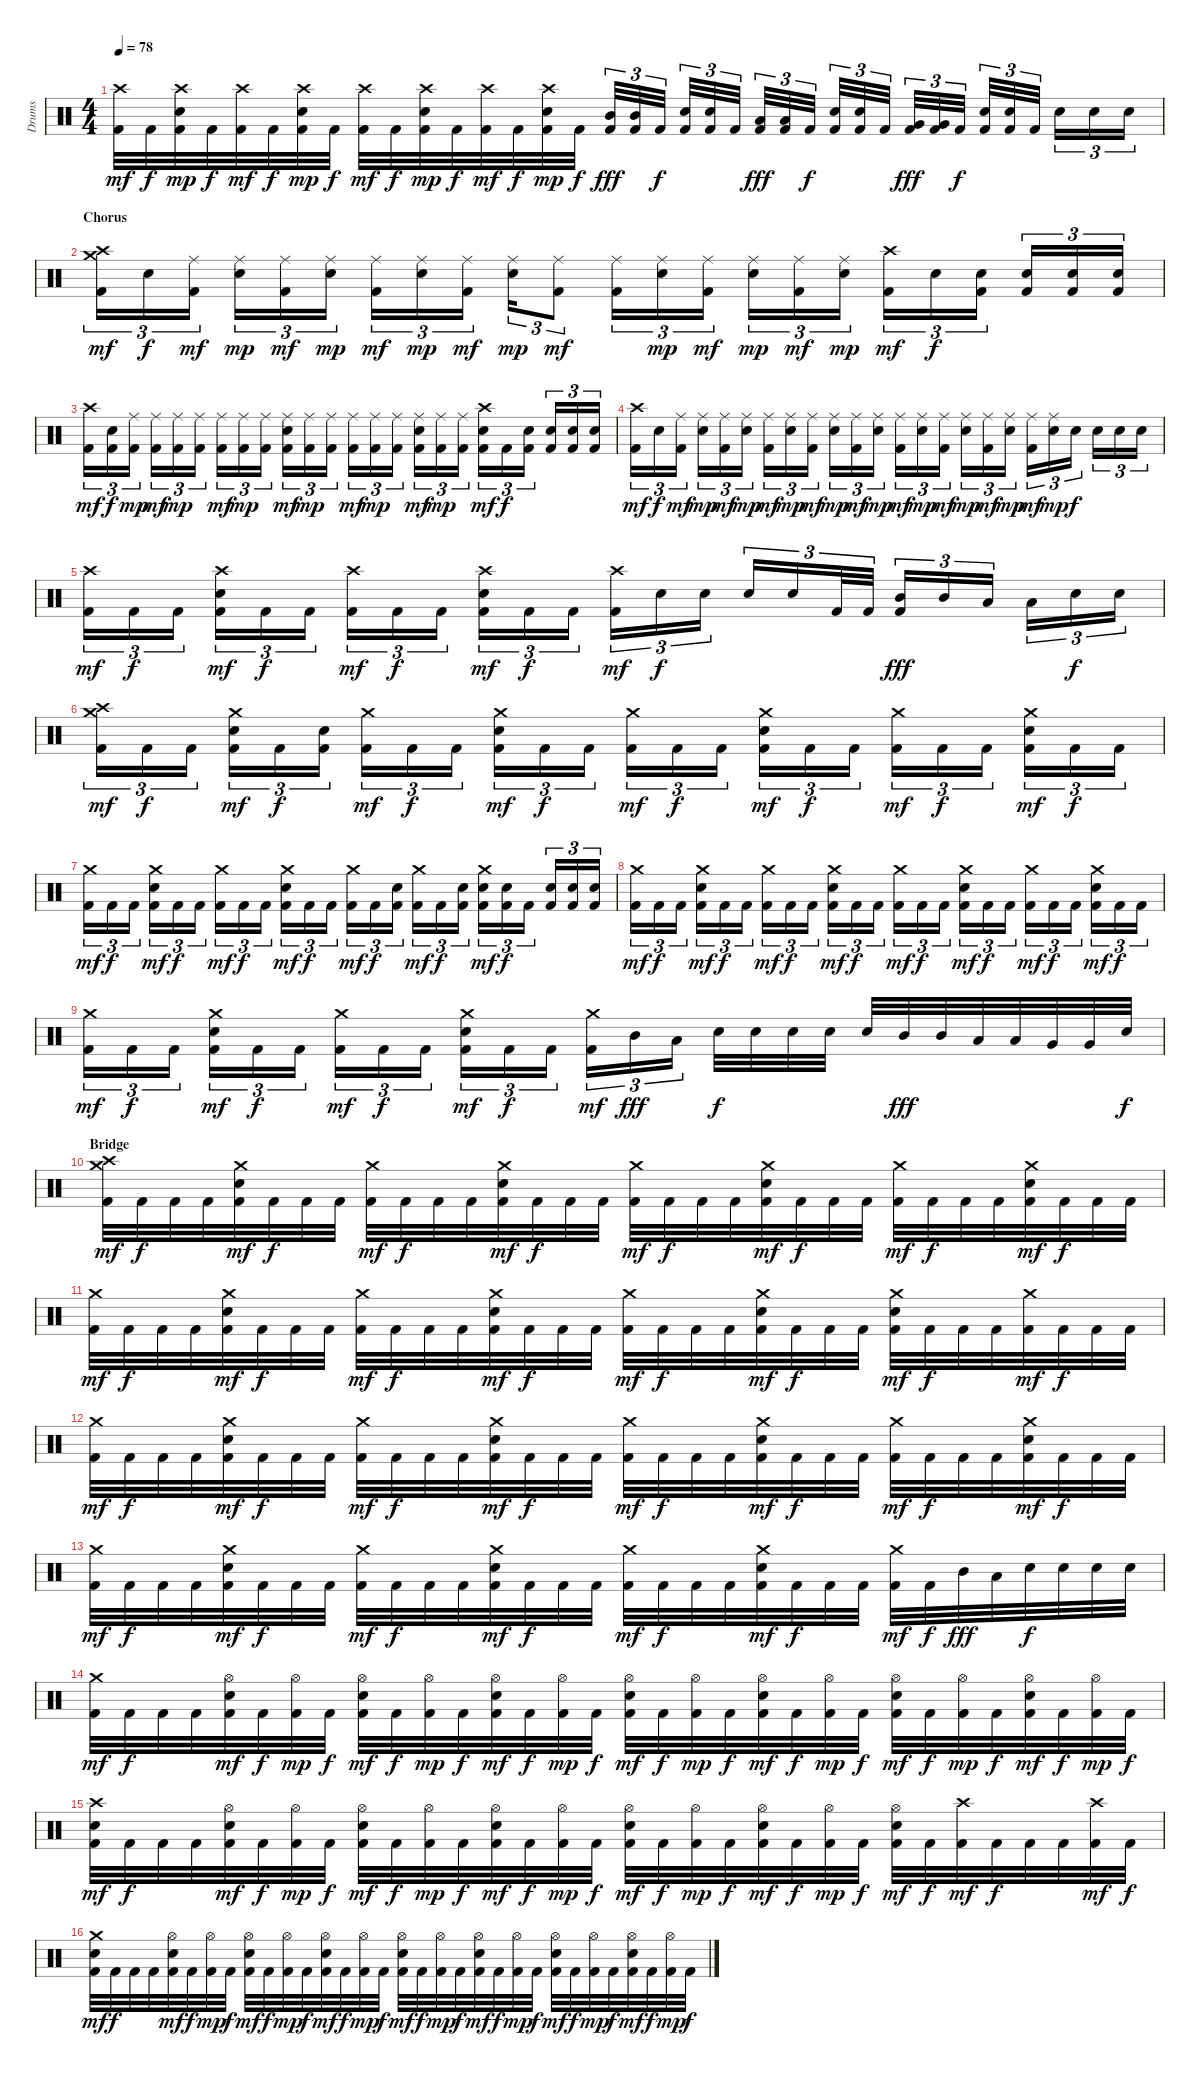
\track ("Drums" "Drums") {instrument percussion}
\staff {score}
\articulation defaults
\ts (4 4)
\tempo 78
\clef neutral
\ks c
("Crash high (hit)" "Kick (hit) 2").32{dy mf} "Kick (hit) 2".32{dy f} ("Crash high (hit)" "Electric Snare (hit)" "Kick (hit) 2").32{dy mp} "Kick (hit) 2".32{dy f} ("Crash high (hit)" "Kick (hit) 2").32{dy mf} "Kick (hit) 2".32{dy f} ("Crash high (hit)" "Electric Snare (hit)" "Kick (hit) 2").32{dy mp} "Kick (hit) 2".32{dy f} ("Crash high (hit)" "Kick (hit) 2").32{dy mf} "Kick (hit) 2".32{dy f} ("Crash high (hit)" "Electric Snare (hit)" "Kick (hit) 2").32{dy mp} "Kick (hit) 2".32{dy f} ("Crash high (hit)" "Kick (hit) 2").32{dy mf} "Kick (hit) 2".32{dy f} ("Crash high (hit)" "Electric Snare (hit)" "Kick (hit) 2").32{dy mp} "Kick (hit) 2".32{dy f} ("Mid Tom (hit)" "Kick (hit) 2").32{tu (3 2) dy fff} ("Mid Tom (hit)" "Kick (hit) 2").32{tu (3 2)} "Kick (hit) 2".32{tu (3 2) dy f} ("Electric Snare (hit)" "Kick (hit) 2").32{tu (3 2)} ("Electric Snare (hit)" "Kick (hit) 2").32{tu (3 2)} "Kick (hit) 2".32{tu (3 2)} ("Low Tom (hit)" "Kick (hit) 2").32{tu (3 2) dy fff} ("Low Tom (hit)" "Kick (hit) 2").32{tu (3 2)} "Kick (hit) 2".32{tu (3 2) dy f} ("Electric Snare (hit)" "Kick (hit) 2").32{tu (3 2)} ("Electric Snare (hit)" "Kick (hit) 2").32{tu (3 2)} "Kick (hit) 2".32{tu (3 2)} ("Very Low Tom (hit)" "Kick (hit) 2").32{tu (3 2) dy fff} ("Very Low Tom (hit)" "Kick (hit) 2").32{tu (3 2)} "Kick (hit) 2".32{tu (3 2) dy f} ("Electric Snare (hit)" "Kick (hit) 2").32{tu (3 2)} ("Electric Snare (hit)" "Kick (hit) 2").32{tu (3 2)} "Kick (hit) 2".32{tu (3 2)} "Electric Snare (hit)".16{tu (3 2)} "Electric Snare (hit)".16{tu (3 2)} "Electric Snare (hit)".16{tu (3 2)} |
\section ("" "Chorus")
("Crash high (hit)" "Crash medium (hit)" "Kick (hit) 2").16{tu (3 2) dy mf} "Electric Snare (hit)".16{tu (3 2) dy f} ("Ride (middle)" "Kick (hit) 2").16{tu (3 2) dy mf} ("Ride (middle)" "Electric Snare (hit)").16{tu (3 2) dy mp} ("Ride (middle)" "Kick (hit) 2").16{tu (3 2) dy mf} ("Ride (middle)" "Electric Snare (hit)").16{tu (3 2) dy mp} ("Ride (middle)" "Kick (hit) 2").16{tu (3 2) dy mf} ("Ride (middle)" "Electric Snare (hit)").16{tu (3 2) dy mp} ("Ride (middle)" "Kick (hit) 2").16{tu (3 2) dy mf} ("Ride (middle)" "Electric Snare (hit)").16{tu (3 2) dy mp} ("Ride (middle)" "Kick (hit) 2").8{tu (3 2) dy mf} ("Ride (middle)" "Kick (hit) 2").16{tu (3 2)} ("Ride (middle)" "Electric Snare (hit)").16{tu (3 2) dy mp} ("Ride (middle)" "Kick (hit) 2").16{tu (3 2) dy mf} ("Ride (middle)" "Electric Snare (hit)").16{tu (3 2) dy mp} ("Ride (middle)" "Kick (hit) 2").16{tu (3 2) dy mf} ("Ride (middle)" "Electric Snare (hit)").16{tu (3 2) dy mp} ("Crash high (hit)" "Kick (hit) 2").16{tu (3 2) dy mf} "Electric Snare (hit)".16{tu (3 2) dy f} ("Electric Snare (hit)" "Kick (hit) 2").16{tu (3 2)} ("Electric Snare (hit)" "Kick (hit) 2").16{tu (3 2)} ("Electric Snare (hit)" "Kick (hit) 2").16{tu (3 2)} ("Electric Snare (hit)" "Kick (hit) 2").16{tu (3 2)} |
("Crash high (hit)" "Kick (hit) 2").16{tu (3 2) dy mf} ("Electric Snare (hit)" "Kick (hit) 2").16{tu (3 2) dy f} ("Ride (middle)" "Kick (hit) 2").16{tu (3 2) dy mp} ("Ride (middle)" "Kick (hit) 2").16{tu (3 2) dy mf} ("Ride (middle)" "Kick (hit) 2").16{tu (3 2) dy mp} ("Ride (middle)" "Kick (hit) 2").16{tu (3 2)} ("Ride (middle)" "Kick (hit) 2").16{tu (3 2) dy mf} ("Ride (middle)" "Kick (hit) 2").16{tu (3 2) dy mp} ("Ride (middle)" "Kick (hit) 2").16{tu (3 2)} ("Ride (middle)" "Electric Snare (hit)" "Kick (hit) 2").16{tu (3 2) dy mf} ("Ride (middle)" "Kick (hit) 2").16{tu (3 2) dy mp} ("Ride (middle)" "Kick (hit) 2").16{tu (3 2)} ("Ride (middle)" "Kick (hit) 2").16{tu (3 2) dy mf} ("Ride (middle)" "Kick (hit) 2").16{tu (3 2) dy mp} ("Ride (middle)" "Kick (hit) 2").16{tu (3 2)} ("Ride (middle)" "Electric Snare (hit)" "Kick (hit) 2").16{tu (3 2) dy mf} ("Ride (middle)" "Kick (hit) 2").16{tu (3 2) dy mp} ("Ride (middle)" "Kick (hit) 2").16{tu (3 2)} ("Crash high (hit)" "Electric Snare (hit)" "Kick (hit) 2").16{tu (3 2) dy mf} "Kick (hit) 2".16{tu (3 2) dy f} ("Electric Snare (hit)" "Kick (hit) 2").16{tu (3 2)} ("Electric Snare (hit)" "Kick (hit) 2").16{tu (3 2)} ("Electric Snare (hit)" "Kick (hit) 2").16{tu (3 2)} ("Electric Snare (hit)" "Kick (hit) 2").16{tu (3 2)} |
("Crash high (hit)" "Kick (hit) 2").16{tu (3 2) dy mf} "Electric Snare (hit)".16{tu (3 2) dy f} ("Ride (middle)" "Kick (hit) 2").16{tu (3 2) dy mf} ("Ride (middle)" "Electric Snare (hit)").16{tu (3 2) dy mp} ("Ride (middle)" "Kick (hit) 2").16{tu (3 2) dy mf} ("Ride (middle)" "Electric Snare (hit)").16{tu (3 2) dy mp} ("Ride (middle)" "Kick (hit) 2").16{tu (3 2) dy mf} ("Ride (middle)" "Electric Snare (hit)").16{tu (3 2) dy mp} ("Ride (middle)" "Kick (hit) 2").16{tu (3 2) dy mf} ("Ride (middle)" "Electric Snare (hit)").16{tu (3 2) dy mp} ("Ride (middle)" "Kick (hit) 2").16{tu (3 2) dy mf} ("Ride (middle)" "Electric Snare (hit)").16{tu (3 2) dy mp} ("Ride (middle)" "Kick (hit) 2").16{tu (3 2) dy mf} ("Ride (middle)" "Electric Snare (hit)").16{tu (3 2) dy mp} ("Ride (middle)" "Kick (hit) 2").16{tu (3 2) dy mf} ("Ride (middle)" "Electric Snare (hit)").16{tu (3 2) dy mp} ("Ride (middle)" "Kick (hit) 2").16{tu (3 2) dy mf} ("Ride (middle)" "Electric Snare (hit)").16{tu (3 2) dy mp} ("Ride (middle)" "Kick (hit) 2").16{tu (3 2) dy mf} ("Ride (middle)" "Electric Snare (hit)").16{tu (3 2) dy mp} "Electric Snare (hit)".16{tu (3 2) dy f} "Electric Snare (hit)".16{tu (3 2)} "Electric Snare (hit)".16{tu (3 2)} "Electric Snare (hit)".16{tu (3 2)} |
("Crash high (hit)" "Kick (hit) 2").16{tu (3 2) dy mf} "Kick (hit) 2".16{tu (3 2) dy f} "Kick (hit) 2".16{tu (3 2)} ("Crash high (hit)" "Electric Snare (hit)" "Kick (hit) 2").16{tu (3 2) dy mf} "Kick (hit) 2".16{tu (3 2) dy f} "Kick (hit) 2".16{tu (3 2)} ("Crash high (hit)" "Kick (hit) 2").16{tu (3 2) dy mf} "Kick (hit) 2".16{tu (3 2) dy f} "Kick (hit) 2".16{tu (3 2)} ("Crash high (hit)" "Electric Snare (hit)" "Kick (hit) 2").16{tu (3 2) dy mf} "Kick (hit) 2".16{tu (3 2) dy f} "Kick (hit) 2".16{tu (3 2)} ("Crash high (hit)" "Kick (hit) 2").16{tu (3 2) dy mf} "Electric Snare (hit)".16{tu (3 2) dy f} "Electric Snare (hit)".16{tu (3 2)} "Electric Snare (hit)".16{tu (3 2)} "Electric Snare (hit)".16{tu (3 2)} "Kick (hit) 2".32{tu (3 2)} "Kick (hit) 2".32{tu (3 2)} ("Mid Tom (hit)" "Kick (hit) 2").16{tu (3 2) dy fff} "Mid Tom (hit)".16{tu (3 2)} "Low Tom (hit)".16{tu (3 2)} "Low Tom (hit)".16{tu (3 2)} "Electric Snare (hit)".16{tu (3 2) dy f} "Electric Snare (hit)".16{tu (3 2)} |
("Crash medium (hit)" "Crash high (hit)" "Kick (hit) 2").16{tu (3 2) dy mf} "Kick (hit) 2".16{tu (3 2) dy f} "Kick (hit) 2".16{tu (3 2)} ("Crash medium (hit)" "Electric Snare (hit)" "Kick (hit) 2").16{tu (3 2) dy mf} "Kick (hit) 2".16{tu (3 2) dy f} ("Electric Snare (hit)" "Kick (hit) 2").16{tu (3 2)} ("Crash medium (hit)" "Kick (hit) 2").16{tu (3 2) dy mf} "Kick (hit) 2".16{tu (3 2) dy f} "Kick (hit) 2".16{tu (3 2)} ("Crash medium (hit)" "Electric Snare (hit)" "Kick (hit) 2").16{tu (3 2) dy mf} "Kick (hit) 2".16{tu (3 2) dy f} "Kick (hit) 2".16{tu (3 2)} ("Crash medium (hit)" "Kick (hit) 2").16{tu (3 2) dy mf} "Kick (hit) 2".16{tu (3 2) dy f} "Kick (hit) 2".16{tu (3 2)} ("Crash medium (hit)" "Electric Snare (hit)" "Kick (hit) 2").16{tu (3 2) dy mf} "Kick (hit) 2".16{tu (3 2) dy f} "Kick (hit) 2".16{tu (3 2)} ("Crash medium (hit)" "Kick (hit) 2").16{tu (3 2) dy mf} "Kick (hit) 2".16{tu (3 2) dy f} "Kick (hit) 2".16{tu (3 2)} ("Crash medium (hit)" "Electric Snare (hit)" "Kick (hit) 2").16{tu (3 2) dy mf} "Kick (hit) 2".16{tu (3 2) dy f} "Kick (hit) 2".16{tu (3 2)} |
("Crash medium (hit)" "Kick (hit) 2").16{tu (3 2) dy mf} "Kick (hit) 2".16{tu (3 2) dy f} "Kick (hit) 2".16{tu (3 2)} ("Crash medium (hit)" "Electric Snare (hit)" "Kick (hit) 2").16{tu (3 2) dy mf} "Kick (hit) 2".16{tu (3 2) dy f} "Kick (hit) 2".16{tu (3 2)} ("Crash medium (hit)" "Kick (hit) 2").16{tu (3 2) dy mf} "Kick (hit) 2".16{tu (3 2) dy f} "Kick (hit) 2".16{tu (3 2)} ("Crash medium (hit)" "Electric Snare (hit)" "Kick (hit) 2").16{tu (3 2) dy mf} "Kick (hit) 2".16{tu (3 2) dy f} "Kick (hit) 2".16{tu (3 2)} ("Crash medium (hit)" "Kick (hit) 2").16{tu (3 2) dy mf} "Kick (hit) 2".16{tu (3 2) dy f} ("Electric Snare (hit)" "Kick (hit) 2").16{tu (3 2)} ("Crash medium (hit)" "Kick (hit) 2").16{tu (3 2) dy mf} "Kick (hit) 2".16{tu (3 2) dy f} ("Electric Snare (hit)" "Kick (hit) 2").16{tu (3 2)} ("Crash medium (hit)" "Electric Snare (hit)" "Kick (hit) 2").16{tu (3 2) dy mf} ("Electric Snare (hit)" "Kick (hit) 2").16{tu (3 2) dy f} "Kick (hit) 2".16{tu (3 2)} ("Electric Snare (hit)" "Kick (hit) 2").16{tu (3 2)} ("Electric Snare (hit)" "Kick (hit) 2").16{tu (3 2)} ("Electric Snare (hit)" "Kick (hit) 2").16{tu (3 2)} |
("Crash medium (hit)" "Kick (hit) 2").16{tu (3 2) dy mf} "Kick (hit) 2".16{tu (3 2) dy f} "Kick (hit) 2".16{tu (3 2)} ("Crash medium (hit)" "Electric Snare (hit)" "Kick (hit) 2").16{tu (3 2) dy mf} "Kick (hit) 2".16{tu (3 2) dy f} "Kick (hit) 2".16{tu (3 2)} ("Crash medium (hit)" "Kick (hit) 2").16{tu (3 2) dy mf} "Kick (hit) 2".16{tu (3 2) dy f} "Kick (hit) 2".16{tu (3 2)} ("Crash medium (hit)" "Electric Snare (hit)" "Kick (hit) 2").16{tu (3 2) dy mf} "Kick (hit) 2".16{tu (3 2) dy f} "Kick (hit) 2".16{tu (3 2)} ("Crash medium (hit)" "Kick (hit) 2").16{tu (3 2) dy mf} "Kick (hit) 2".16{tu (3 2) dy f} "Kick (hit) 2".16{tu (3 2)} ("Crash medium (hit)" "Electric Snare (hit)" "Kick (hit) 2").16{tu (3 2) dy mf} "Kick (hit) 2".16{tu (3 2) dy f} "Kick (hit) 2".16{tu (3 2)} ("Crash medium (hit)" "Kick (hit) 2").16{tu (3 2) dy mf} "Kick (hit) 2".16{tu (3 2) dy f} "Kick (hit) 2".16{tu (3 2)} ("Crash medium (hit)" "Electric Snare (hit)" "Kick (hit) 2").16{tu (3 2) dy mf} "Kick (hit) 2".16{tu (3 2) dy f} "Kick (hit) 2".16{tu (3 2)} |
("Crash medium (hit)" "Kick (hit) 2").16{tu (3 2) dy mf} "Kick (hit) 2".16{tu (3 2) dy f} "Kick (hit) 2".16{tu (3 2)} ("Crash medium (hit)" "Electric Snare (hit)" "Kick (hit) 2").16{tu (3 2) dy mf} "Kick (hit) 2".16{tu (3 2) dy f} "Kick (hit) 2".16{tu (3 2)} ("Crash medium (hit)" "Kick (hit) 2").16{tu (3 2) dy mf} "Kick (hit) 2".16{tu (3 2) dy f} "Kick (hit) 2".16{tu (3 2)} ("Crash medium (hit)" "Electric Snare (hit)" "Kick (hit) 2").16{tu (3 2) dy mf} "Kick (hit) 2".16{tu (3 2) dy f} "Kick (hit) 2".16{tu (3 2)} ("Crash medium (hit)" "Kick (hit) 2").16{tu (3 2) dy mf} "Mid Tom (hit)".16{tu (3 2) dy fff} "Low Tom (hit)".16{tu (3 2)} "Electric Snare (hit)".32{dy f} "Electric Snare (hit)".32 "Electric Snare (hit)".32 "Electric Snare (hit)".32 "Electric Snare (hit)".32 "Mid Tom (hit)".32{dy fff} "Mid Tom (hit)".32 "Low Tom (hit)".32 "Low Tom (hit)".32 "Very Low Tom (hit)".32 "Very Low Tom (hit)".32 "Electric Snare (hit)".32{dy f} |
\section ("" "Bridge")
("Crash medium (hit)" "Crash high (hit)" "Kick (hit) 2").32{dy mf} "Kick (hit) 2".32{dy f} "Kick (hit) 2".32 "Kick (hit) 2".32 ("Crash medium (hit)" "Electric Snare (hit)" "Kick (hit) 2").32{dy mf} "Kick (hit) 2".32{dy f} "Kick (hit) 2".32 "Kick (hit) 2".32 ("Crash medium (hit)" "Kick (hit) 2").32{dy mf} "Kick (hit) 2".32{dy f} "Kick (hit) 2".32 "Kick (hit) 2".32 ("Crash medium (hit)" "Electric Snare (hit)" "Kick (hit) 2").32{dy mf} "Kick (hit) 2".32{dy f} "Kick (hit) 2".32 "Kick (hit) 2".32 ("Crash medium (hit)" "Kick (hit) 2").32{dy mf} "Kick (hit) 2".32{dy f} "Kick (hit) 2".32 "Kick (hit) 2".32 ("Crash medium (hit)" "Electric Snare (hit)" "Kick (hit) 2").32{dy mf} "Kick (hit) 2".32{dy f} "Kick (hit) 2".32 "Kick (hit) 2".32 ("Crash medium (hit)" "Kick (hit) 2").32{dy mf} "Kick (hit) 2".32{dy f} "Kick (hit) 2".32 "Kick (hit) 2".32 ("Crash medium (hit)" "Electric Snare (hit)" "Kick (hit) 2").32{dy mf} "Kick (hit) 2".32{dy f} "Kick (hit) 2".32 "Kick (hit) 2".32 |
("Crash medium (hit)" "Kick (hit) 2").32{dy mf} "Kick (hit) 2".32{dy f} "Kick (hit) 2".32 "Kick (hit) 2".32 ("Crash medium (hit)" "Electric Snare (hit)" "Kick (hit) 2").32{dy mf} "Kick (hit) 2".32{dy f} "Kick (hit) 2".32 "Kick (hit) 2".32 ("Crash medium (hit)" "Kick (hit) 2").32{dy mf} "Kick (hit) 2".32{dy f} "Kick (hit) 2".32 "Kick (hit) 2".32 ("Crash medium (hit)" "Electric Snare (hit)" "Kick (hit) 2").32{dy mf} "Kick (hit) 2".32{dy f} "Kick (hit) 2".32 "Kick (hit) 2".32 ("Crash medium (hit)" "Kick (hit) 2").32{dy mf} "Kick (hit) 2".32{dy f} "Kick (hit) 2".32 "Kick (hit) 2".32 ("Crash medium (hit)" "Electric Snare (hit)" "Kick (hit) 2").32{dy mf} "Kick (hit) 2".32{dy f} "Kick (hit) 2".32 "Kick (hit) 2".32 ("Crash medium (hit)" "Electric Snare (hit)" "Kick (hit) 2").32{dy mf} "Kick (hit) 2".32{dy f} "Kick (hit) 2".32 "Kick (hit) 2".32 ("Crash medium (hit)" "Kick (hit) 2").32{dy mf} "Kick (hit) 2".32{dy f} "Kick (hit) 2".32 "Kick (hit) 2".32 |
("Crash medium (hit)" "Kick (hit) 2").32{dy mf} "Kick (hit) 2".32{dy f} "Kick (hit) 2".32 "Kick (hit) 2".32 ("Crash medium (hit)" "Electric Snare (hit)" "Kick (hit) 2").32{dy mf} "Kick (hit) 2".32{dy f} "Kick (hit) 2".32 "Kick (hit) 2".32 ("Crash medium (hit)" "Kick (hit) 2").32{dy mf} "Kick (hit) 2".32{dy f} "Kick (hit) 2".32 "Kick (hit) 2".32 ("Crash medium (hit)" "Electric Snare (hit)" "Kick (hit) 2").32{dy mf} "Kick (hit) 2".32{dy f} "Kick (hit) 2".32 "Kick (hit) 2".32 ("Crash medium (hit)" "Kick (hit) 2").32{dy mf} "Kick (hit) 2".32{dy f} "Kick (hit) 2".32 "Kick (hit) 2".32 ("Crash medium (hit)" "Electric Snare (hit)" "Kick (hit) 2").32{dy mf} "Kick (hit) 2".32{dy f} "Kick (hit) 2".32 "Kick (hit) 2".32 ("Crash medium (hit)" "Kick (hit) 2").32{dy mf} "Kick (hit) 2".32{dy f} "Kick (hit) 2".32 "Kick (hit) 2".32 ("Crash medium (hit)" "Electric Snare (hit)" "Kick (hit) 2").32{dy mf} "Kick (hit) 2".32{dy f} "Kick (hit) 2".32 "Kick (hit) 2".32 |
("Crash medium (hit)" "Kick (hit) 2").32{dy mf} "Kick (hit) 2".32{dy f} "Kick (hit) 2".32 "Kick (hit) 2".32 ("Crash medium (hit)" "Electric Snare (hit)" "Kick (hit) 2").32{dy mf} "Kick (hit) 2".32{dy f} "Kick (hit) 2".32 "Kick (hit) 2".32 ("Crash medium (hit)" "Kick (hit) 2").32{dy mf} "Kick (hit) 2".32{dy f} "Kick (hit) 2".32 "Kick (hit) 2".32 ("Crash medium (hit)" "Electric Snare (hit)" "Kick (hit) 2").32{dy mf} "Kick (hit) 2".32{dy f} "Kick (hit) 2".32 "Kick (hit) 2".32 ("Crash medium (hit)" "Kick (hit) 2").32{dy mf} "Kick (hit) 2".32{dy f} "Kick (hit) 2".32 "Kick (hit) 2".32 ("Crash medium (hit)" "Electric Snare (hit)" "Kick (hit) 2").32{dy mf} "Kick (hit) 2".32{dy f} "Kick (hit) 2".32 "Kick (hit) 2".32 ("Crash medium (hit)" "Kick (hit) 2").32{dy mf} "Kick (hit) 2".32{dy f} "Mid Tom (hit)".32{dy fff} "Low Tom (hit)".32 "Electric Snare (hit)".32{dy f} "Electric Snare (hit)".32 "Electric Snare (hit)".32 "Electric Snare (hit)".32 |
("Crash medium (hit)" "Kick (hit) 2").32{dy mf} "Kick (hit) 2".32{dy f} "Kick (hit) 2".32 "Kick (hit) 2".32 ("Hi-Hat (open)" "Electric Snare (hit)" "Kick (hit) 2").32{dy mf} "Kick (hit) 2".32{dy f} ("Hi-Hat (open)" "Kick (hit) 2").32{dy mp} "Kick (hit) 2".32{dy f} ("Hi-Hat (open)" "Electric Snare (hit)" "Kick (hit) 2").32{dy mf} "Kick (hit) 2".32{dy f} ("Hi-Hat (open)" "Kick (hit) 2").32{dy mp} "Kick (hit) 2".32{dy f} ("Hi-Hat (open)" "Electric Snare (hit)" "Kick (hit) 2").32{dy mf} "Kick (hit) 2".32{dy f} ("Hi-Hat (open)" "Kick (hit) 2").32{dy mp} "Kick (hit) 2".32{dy f} ("Hi-Hat (open)" "Electric Snare (hit)" "Kick (hit) 2").32{dy mf} "Kick (hit) 2".32{dy f} ("Hi-Hat (open)" "Kick (hit) 2").32{dy mp} "Kick (hit) 2".32{dy f} ("Hi-Hat (open)" "Electric Snare (hit)" "Kick (hit) 2").32{dy mf} "Kick (hit) 2".32{dy f} ("Hi-Hat (open)" "Kick (hit) 2").32{dy mp} "Kick (hit) 2".32{dy f} ("Hi-Hat (open)" "Electric Snare (hit)" "Kick (hit) 2").32{dy mf} "Kick (hit) 2".32{dy f} ("Hi-Hat (open)" "Kick (hit) 2").32{dy mp} "Kick (hit) 2".32{dy f} ("Hi-Hat (open)" "Electric Snare (hit)" "Kick (hit) 2").32{dy mf} "Kick (hit) 2".32{dy f} ("Hi-Hat (open)" "Kick (hit) 2").32{dy mp} "Kick (hit) 2".32{dy f} |
("Crash high (hit)" "Electric Snare (hit)" "Kick (hit) 2").32{dy mf} "Kick (hit) 2".32{dy f} "Kick (hit) 2".32 "Kick (hit) 2".32 ("Hi-Hat (open)" "Electric Snare (hit)" "Kick (hit) 2").32{dy mf} "Kick (hit) 2".32{dy f} ("Hi-Hat (open)" "Kick (hit) 2").32{dy mp} "Kick (hit) 2".32{dy f} ("Hi-Hat (open)" "Electric Snare (hit)" "Kick (hit) 2").32{dy mf} "Kick (hit) 2".32{dy f} ("Hi-Hat (open)" "Kick (hit) 2").32{dy mp} "Kick (hit) 2".32{dy f} ("Hi-Hat (open)" "Electric Snare (hit)" "Kick (hit) 2").32{dy mf} "Kick (hit) 2".32{dy f} ("Hi-Hat (open)" "Kick (hit) 2").32{dy mp} "Kick (hit) 2".32{dy f} ("Hi-Hat (open)" "Electric Snare (hit)" "Kick (hit) 2").32{dy mf} "Kick (hit) 2".32{dy f} ("Hi-Hat (open)" "Kick (hit) 2").32{dy mp} "Kick (hit) 2".32{dy f} ("Hi-Hat (open)" "Electric Snare (hit)" "Kick (hit) 2").32{dy mf} "Kick (hit) 2".32{dy f} ("Hi-Hat (open)" "Kick (hit) 2").32{dy mp} "Kick (hit) 2".32{dy f} ("Hi-Hat (open)" "Electric Snare (hit)" "Kick (hit) 2").32{dy mf} "Kick (hit) 2".32{dy f} ("Crash high (hit)"{pm} "Kick (hit) 2").32{dy mf} "Kick (hit) 2".32{dy f} "Kick (hit) 2".32 "Kick (hit) 2".32 ("Crash high (hit)" "Kick (hit) 2").32{dy mf} "Kick (hit) 2".32{dy f} |
("Crash medium (hit)" "Electric Snare (hit)" "Kick (hit) 2").32{dy mf} "Kick (hit) 2".32{dy f} "Kick (hit) 2".32 "Kick (hit) 2".32 ("Hi-Hat (open)" "Electric Snare (hit)" "Kick (hit) 2").32{dy mf} "Kick (hit) 2".32{dy f} ("Hi-Hat (open)" "Kick (hit) 2").32{dy mp} "Kick (hit) 2".32{dy f} ("Hi-Hat (open)" "Electric Snare (hit)" "Kick (hit) 2").32{dy mf} "Kick (hit) 2".32{dy f} ("Hi-Hat (open)" "Kick (hit) 2").32{dy mp} "Kick (hit) 2".32{dy f} ("Hi-Hat (open)" "Electric Snare (hit)" "Kick (hit) 2").32{dy mf} "Kick (hit) 2".32{dy f} ("Hi-Hat (open)" "Kick (hit) 2").32{dy mp} "Kick (hit) 2".32{dy f} ("Hi-Hat (open)" "Electric Snare (hit)" "Kick (hit) 2").32{dy mf} "Kick (hit) 2".32{dy f} ("Hi-Hat (open)" "Kick (hit) 2").32{dy mp} "Kick (hit) 2".32{dy f} ("Hi-Hat (open)" "Electric Snare (hit)" "Kick (hit) 2").32{dy mf} "Kick (hit) 2".32{dy f} ("Hi-Hat (open)" "Kick (hit) 2").32{dy mp} "Kick (hit) 2".32{dy f} ("Hi-Hat (open)" "Electric Snare (hit)" "Kick (hit) 2").32{dy mf} "Kick (hit) 2".32{dy f} ("Hi-Hat (open)" "Kick (hit) 2").32{dy mp} "Kick (hit) 2".32{dy f} ("Hi-Hat (open)" "Electric Snare (hit)" "Kick (hit) 2").32{dy mf} "Kick (hit) 2".32{dy f} ("Hi-Hat (open)" "Kick (hit) 2").32{dy mp} "Kick (hit) 2".32{dy f}
